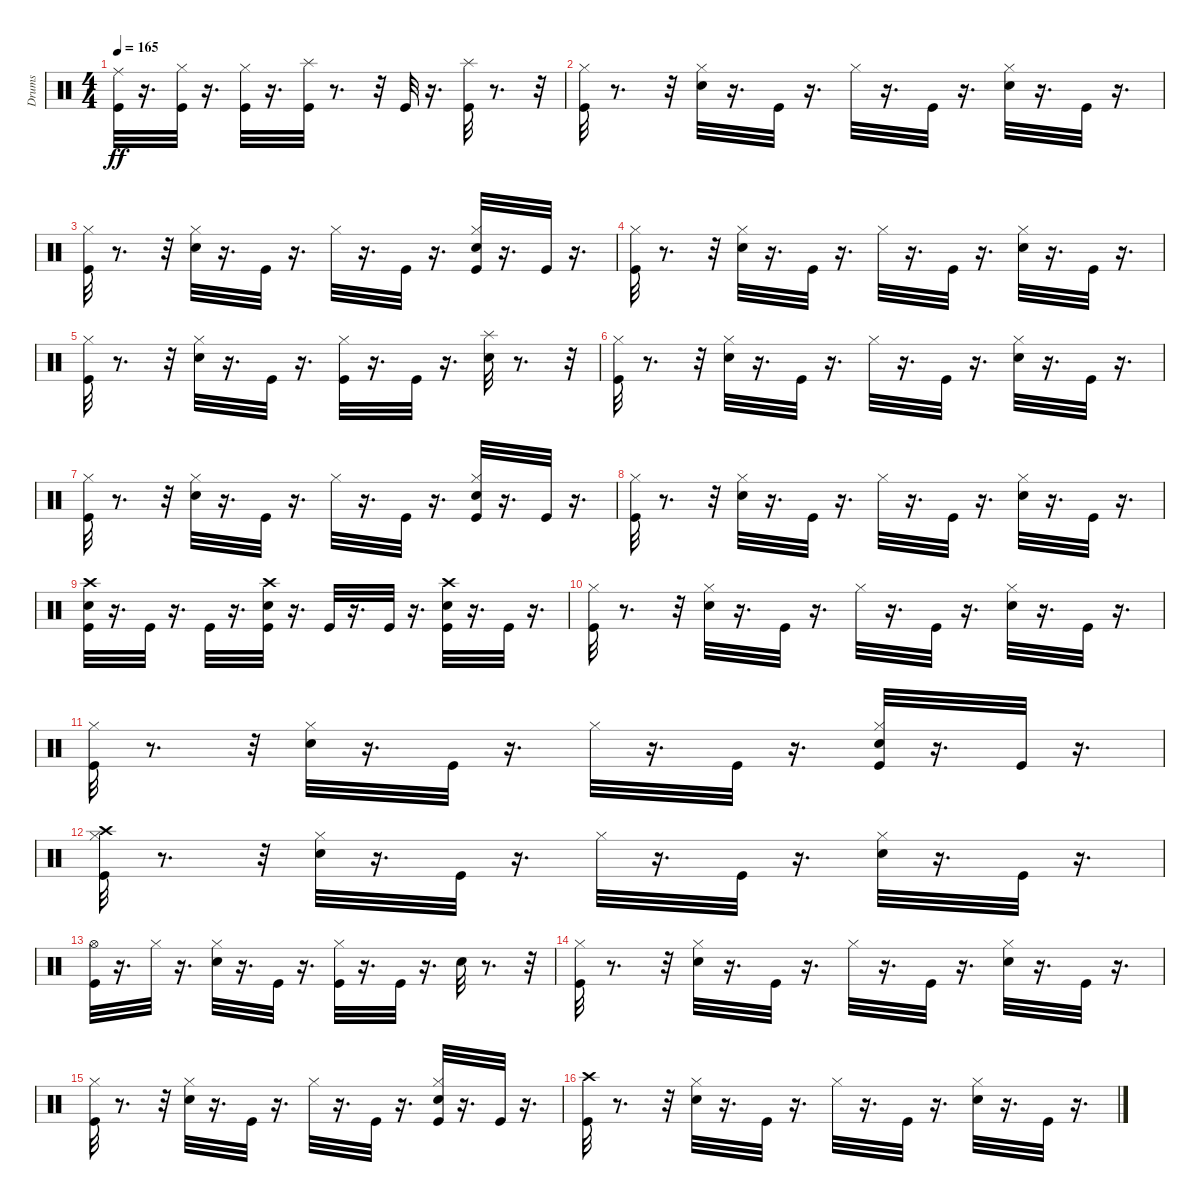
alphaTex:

\track ("Drums" "Drums") {instrument percussion}
\staff {score}
\articulation defaults
\ts (4 4)
\tempo 165
\clef neutral
\ks c
("Ride (middle)" "Kick (hit)").32{dy ff} r.16{d} ("Hi-Hat (closed)" "Kick (hit)").32 r.16{d} ("Kick (hit)" "Hi-Hat (closed)").32 r.16{d} ("Splash (hit)" "Kick (hit)").32 r.8{d} r.32 "Kick (hit)".32 r.16{d} ("Kick (hit)" "Splash (hit)").32 r.8{d} r.32 |
("Hi-Hat (closed)" "Kick (hit)").32 r.8{d} r.32 ("Hi-Hat (closed)" "Electric Snare (hit)").32 r.16{d} "Kick (hit)".32 r.16{d} "Hi-Hat (closed)".32 r.16{d} "Kick (hit)".32 r.16{d} ("Hi-Hat (closed)" "Electric Snare (hit)").32 r.16{d} "Kick (hit)".32 r.16{d} |
("Hi-Hat (closed)" "Kick (hit)").32 r.8{d} r.32 ("Electric Snare (hit)" "Hi-Hat (closed)").32 r.16{d} "Kick (hit)".32 r.16{d} "Hi-Hat (closed)".32 r.16{d} "Kick (hit)".32 r.16{d} ("Electric Snare (hit)" "Hi-Hat (closed)" "Kick (hit)").32 r.16{d} "Kick (hit)".32 r.16{d} |
("Kick (hit)" "Hi-Hat (closed)").32 r.8{d} r.32 ("Hi-Hat (closed)" "Electric Snare (hit)").32 r.16{d} "Kick (hit)".32 r.16{d} "Hi-Hat (closed)".32 r.16{d} "Kick (hit)".32 r.16{d} ("Electric Snare (hit)" "Hi-Hat (closed)").32 r.16{d} "Kick (hit)".32 r.16{d} |
("Kick (hit)" "Hi-Hat (closed)").32 r.8{d} r.32 ("Hi-Hat (closed)" "Electric Snare (hit)").32 r.16{d} "Kick (hit)".32 r.16{d} ("Kick (hit)" "Hi-Hat (closed)").32 r.16{d} "Kick (hit)".32 r.16{d} ("Splash (hit)" "Electric Snare (hit)").32 r.8{d} r.32 |
("Kick (hit)" "Hi-Hat (closed)").32 r.8{d} r.32 ("Hi-Hat (closed)" "Electric Snare (hit)").32 r.16{d} "Kick (hit)".32 r.16{d} "Hi-Hat (closed)".32 r.16{d} "Kick (hit)".32 r.16{d} ("Electric Snare (hit)" "Hi-Hat (closed)").32 r.16{d} "Kick (hit)".32 r.16{d} |
("Hi-Hat (closed)" "Kick (hit)").32 r.8{d} r.32 ("Hi-Hat (closed)" "Electric Snare (hit)").32 r.16{d} "Kick (hit)".32 r.16{d} "Hi-Hat (closed)".32 r.16{d} "Kick (hit)".32 r.16{d} ("Kick (hit)" "Hi-Hat (closed)" "Electric Snare (hit)").32 r.16{d} "Kick (hit)".32 r.16{d} |
("Kick (hit)" "Hi-Hat (closed)").32 r.8{d} r.32 ("Hi-Hat (closed)" "Electric Snare (hit)").32 r.16{d} "Kick (hit)".32 r.16{d} "Hi-Hat (closed)".32 r.16{d} "Kick (hit)".32 r.16{d} ("Electric Snare (hit)" "Hi-Hat (closed)").32 r.16{d} "Kick (hit)".32 r.16{d} |
("Kick (hit)" "Crash high (hit)" "Electric Snare (hit)").32 r.16{d} "Kick (hit)".32 r.16{d} "Kick (hit)".32 r.16{d} ("Crash high (hit)" "Electric Snare (hit)" "Kick (hit)").32 r.16{d} "Kick (hit)".32 r.16{d} "Kick (hit)".32 r.16{d} ("Electric Snare (hit)" "Kick (hit)" "Crash high (hit)").32 r.16{d} "Kick (hit)".32 r.16{d} |
("Hi-Hat (closed)" "Kick (hit)").32 r.8{d} r.32 ("Hi-Hat (closed)" "Electric Snare (hit)").32 r.16{d} "Kick (hit)".32 r.16{d} "Hi-Hat (closed)".32 r.16{d} "Kick (hit)".32 r.16{d} ("Hi-Hat (closed)" "Electric Snare (hit)").32 r.16{d} "Kick (hit)".32 r.16{d} |
("Kick (hit)" "Hi-Hat (closed)").32 r.8{d} r.32 ("Hi-Hat (closed)" "Electric Snare (hit)").32 r.16{d} "Kick (hit)".32 r.16{d} "Hi-Hat (closed)".32 r.16{d} "Kick (hit)".32 r.16{d} ("Hi-Hat (closed)" "Electric Snare (hit)" "Kick (hit)").32 r.16{d} "Kick (hit)".32 r.16{d} |
("Crash high (hit)" "Hi-Hat (closed)" "Kick (hit)").32 r.8{d} r.32 ("Electric Snare (hit)" "Hi-Hat (closed)").32 r.16{d} "Kick (hit)".32 r.16{d} "Hi-Hat (closed)".32 r.16{d} "Kick (hit)".32 r.16{d} ("Electric Snare (hit)" "Hi-Hat (closed)").32 r.16{d} "Kick (hit)".32 r.16{d} |
("Hi-Hat (open)" "Kick (hit)").32 r.16{d} "Hi-Hat (closed)".32 r.16{d} ("Hi-Hat (closed)" "Electric Snare (hit)").32 r.16{d} "Kick (hit)".32 r.16{d} ("Hi-Hat (closed)" "Kick (hit)").32 r.16{d} "Kick (hit)".32 r.16{d} "Electric Snare (hit)".32 r.8{d} r.32 |
("Hi-Hat (closed)" "Kick (hit)").32 r.8{d} r.32 ("Hi-Hat (closed)" "Electric Snare (hit)").32 r.16{d} "Kick (hit)".32 r.16{d} "Hi-Hat (closed)".32 r.16{d} "Kick (hit)".32 r.16{d} ("Hi-Hat (closed)" "Electric Snare (hit)").32 r.16{d} "Kick (hit)".32 r.16{d} |
("Kick (hit)" "Hi-Hat (closed)").32 r.8{d} r.32 ("Hi-Hat (closed)" "Electric Snare (hit)").32 r.16{d} "Kick (hit)".32 r.16{d} "Hi-Hat (closed)".32 r.16{d} "Kick (hit)".32 r.16{d} ("Hi-Hat (closed)" "Electric Snare (hit)" "Kick (hit)").32 r.16{d} "Kick (hit)".32 r.16{d} |
("Kick (hit)" "Crash high (hit)").32 r.8{d} r.32 ("Electric Snare (hit)" "Hi-Hat (closed)").32 r.16{d} "Kick (hit)".32 r.16{d} "Hi-Hat (closed)".32 r.16{d} "Kick (hit)".32 r.16{d} ("Electric Snare (hit)" "Hi-Hat (closed)").32 r.16{d} "Kick (hit)".32 r.16{d}
